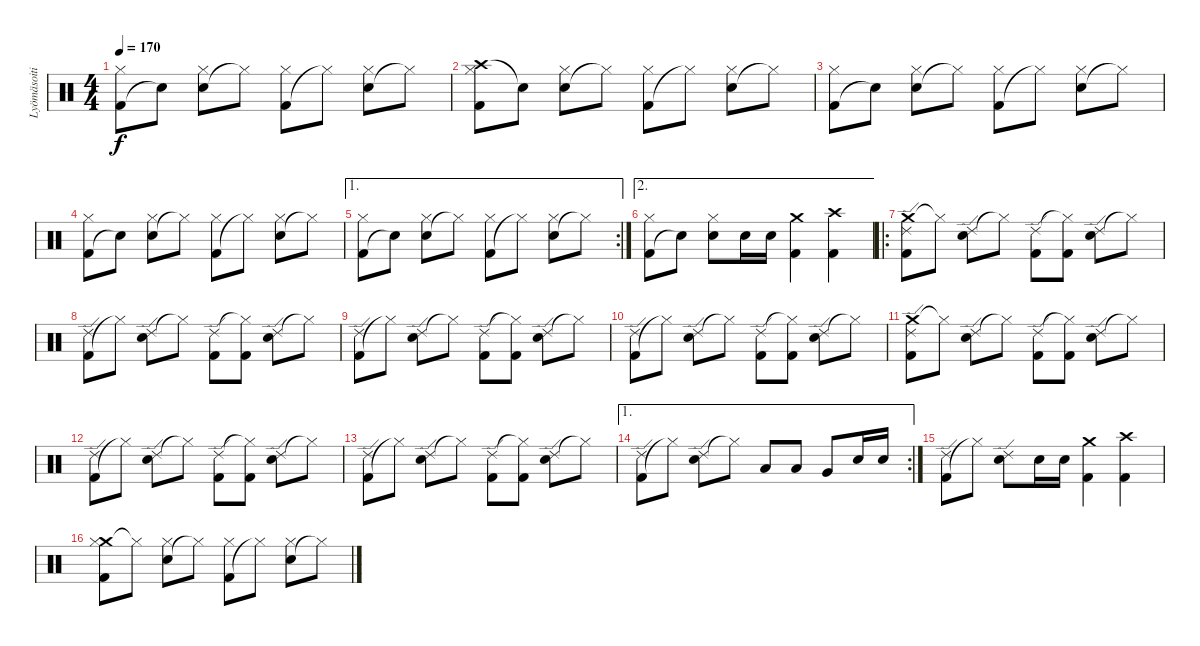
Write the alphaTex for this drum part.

\track ("Lyömäsoitin" "Lyömäsoiti") {instrument percussion}
\staff {score}
\articulation defaults
\ts (4 4)
\tempo 170
\clef neutral
\ks c
("Kick (hit) 2" "Hi-Hat (closed)").8{dy f} "Snare (hit)"{t}.8 ("Electric Snare (hit)" "Hi-Hat (closed)").8 "Hi-Hat (closed)"{t}.8 ("Kick (hit) 2" "Hi-Hat (closed)").8 "Hi-Hat (closed)"{t}.8 ("Electric Snare (hit)" "Hi-Hat (closed)").8 "Hi-Hat (closed)"{t}.8 |
("Crash high (hit)" "Kick (hit) 2" "Hi-Hat (closed)").8 "Snare (hit)"{t}.8 ("Electric Snare (hit)" "Hi-Hat (closed)").8 "Hi-Hat (closed)"{t}.8 ("Kick (hit) 2" "Hi-Hat (closed)").8 "Hi-Hat (closed)"{t}.8 ("Electric Snare (hit)" "Hi-Hat (closed)").8 "Hi-Hat (closed)"{t}.8 |
("Kick (hit) 2" "Hi-Hat (closed)").8 "Snare (hit)"{t}.8 ("Electric Snare (hit)" "Hi-Hat (closed)").8 "Hi-Hat (closed)"{t}.8 ("Kick (hit) 2" "Hi-Hat (closed)").8 "Hi-Hat (closed)"{t}.8 ("Electric Snare (hit)" "Hi-Hat (closed)").8 "Hi-Hat (closed)"{t}.8 |
("Kick (hit) 2" "Hi-Hat (closed)").8 "Snare (hit)"{t}.8 ("Electric Snare (hit)" "Hi-Hat (closed)").8 "Hi-Hat (closed)"{t}.8 ("Kick (hit) 2" "Hi-Hat (closed)").8 "Hi-Hat (closed)"{t}.8 ("Electric Snare (hit)" "Hi-Hat (closed)").8 "Hi-Hat (closed)"{t}.8 |
\ae 1
\rc 2
("Kick (hit) 2" "Hi-Hat (closed)").8 "Snare (hit)"{t}.8 ("Electric Snare (hit)" "Hi-Hat (closed)").8 "Hi-Hat (closed)"{t}.8 ("Kick (hit) 2" "Hi-Hat (closed)").8 "Hi-Hat (closed)"{t}.8 ("Electric Snare (hit)" "Hi-Hat (closed)").8 "Hi-Hat (closed)"{t}.8 |
\ae 2
("Kick (hit) 2" "Hi-Hat (closed)").8 "Snare (hit)"{t}.8 ("Electric Snare (hit)" "Hi-Hat (closed)").8 "Electric Snare (hit)".16 "Electric Snare (hit)".16 ("Crash medium (hit)" "Kick (hit) 2").4 ("Crash high (hit)" "Kick (hit) 2").4 |
\ro
("Crash medium (hit)" "Kick (hit) 2" "Ride (edge) 2").8 "Hi-Hat (closed)"{t}.8 ("Electric Snare (hit)" "Ride (edge) 2").8 "Hi-Hat (closed)"{t}.8 ("Kick (hit) 2" "Ride (edge) 2").8 ("Kick (hit) 2" "Hi-Hat (closed)"{t}).8 ("Electric Snare (hit)" "Ride (edge) 2").8 "Hi-Hat (closed)"{t}.8 |
("Kick (hit) 2" "Ride (edge) 2").8 "Hi-Hat (closed)"{t}.8 ("Electric Snare (hit)" "Ride (edge) 2").8 "Hi-Hat (closed)"{t}.8 ("Kick (hit) 2" "Ride (edge) 2").8 ("Kick (hit) 2" "Hi-Hat (closed)"{t}).8 ("Electric Snare (hit)" "Ride (edge) 2").8 "Hi-Hat (closed)"{t}.8 |
("Kick (hit) 2" "Ride (edge) 2").8 "Hi-Hat (closed)"{t}.8 ("Electric Snare (hit)" "Ride (edge) 2").8 "Hi-Hat (closed)"{t}.8 ("Kick (hit) 2" "Ride (edge) 2").8 ("Kick (hit) 2" "Hi-Hat (closed)"{t}).8 ("Electric Snare (hit)" "Ride (edge) 2").8 "Hi-Hat (closed)"{t}.8 |
("Kick (hit) 2" "Ride (edge) 2").8 "Hi-Hat (closed)"{t}.8 ("Electric Snare (hit)" "Ride (edge) 2").8 "Hi-Hat (closed)"{t}.8 ("Kick (hit) 2" "Ride (edge) 2").8 ("Kick (hit) 2" "Hi-Hat (closed)"{t}).8 ("Electric Snare (hit)" "Ride (edge) 2").8 "Hi-Hat (closed)"{t}.8 |
("Crash medium (hit)" "Kick (hit) 2" "Ride (edge) 2").8 "Hi-Hat (closed)"{t}.8 ("Electric Snare (hit)" "Ride (edge) 2").8 "Hi-Hat (closed)"{t}.8 ("Kick (hit) 2" "Ride (edge) 2").8 ("Kick (hit) 2" "Hi-Hat (closed)"{t}).8 ("Electric Snare (hit)" "Ride (edge) 2").8 "Hi-Hat (closed)"{t}.8 |
("Kick (hit) 2" "Ride (edge) 2").8 "Hi-Hat (closed)"{t}.8 ("Electric Snare (hit)" "Ride (edge) 2").8 "Hi-Hat (closed)"{t}.8 ("Kick (hit) 2" "Ride (edge) 2").8 ("Kick (hit) 2" "Hi-Hat (closed)"{t}).8 ("Electric Snare (hit)" "Ride (edge) 2").8 "Hi-Hat (closed)"{t}.8 |
("Kick (hit) 2" "Ride (edge) 2").8 "Hi-Hat (closed)"{t}.8 ("Electric Snare (hit)" "Ride (edge) 2").8 "Hi-Hat (closed)"{t}.8 ("Kick (hit) 2" "Ride (edge) 2").8 ("Kick (hit) 2" "Hi-Hat (closed)"{t}).8 ("Electric Snare (hit)" "Ride (edge) 2").8 "Hi-Hat (closed)"{t}.8 |
\ae 1
\rc 2
("Kick (hit) 2" "Ride (edge) 2").8 "Hi-Hat (closed)"{t}.8 ("Electric Snare (hit)" "Ride (edge) 2").8 "Hi-Hat (closed)"{t}.8 "Low Tom (hit)".8 "Low Tom (hit)".8 "Very Low Tom (hit)".8 "Electric Snare (hit)".16 "Electric Snare (hit)".16 |
("Kick (hit) 2" "Ride (edge) 2").8 "Hi-Hat (closed)"{t}.8 ("Electric Snare (hit)" "Ride (edge) 2").8 "Electric Snare (hit)".16 "Electric Snare (hit)".16 ("Crash medium (hit)" "Kick (hit) 2").4 ("Crash high (hit)" "Kick (hit) 2").4 |
("Crash medium (hit)" "Kick (hit) 2" "Hi-Hat (closed)").8 "Hi-Hat (closed)"{t}.8 ("Electric Snare (hit)" "Hi-Hat (closed)").8 "Hi-Hat (closed)"{t}.8 ("Kick (hit) 2" "Hi-Hat (closed)").8 "Hi-Hat (closed)"{t}.8 ("Electric Snare (hit)" "Hi-Hat (closed)").8 "Hi-Hat (closed)"{t}.8
